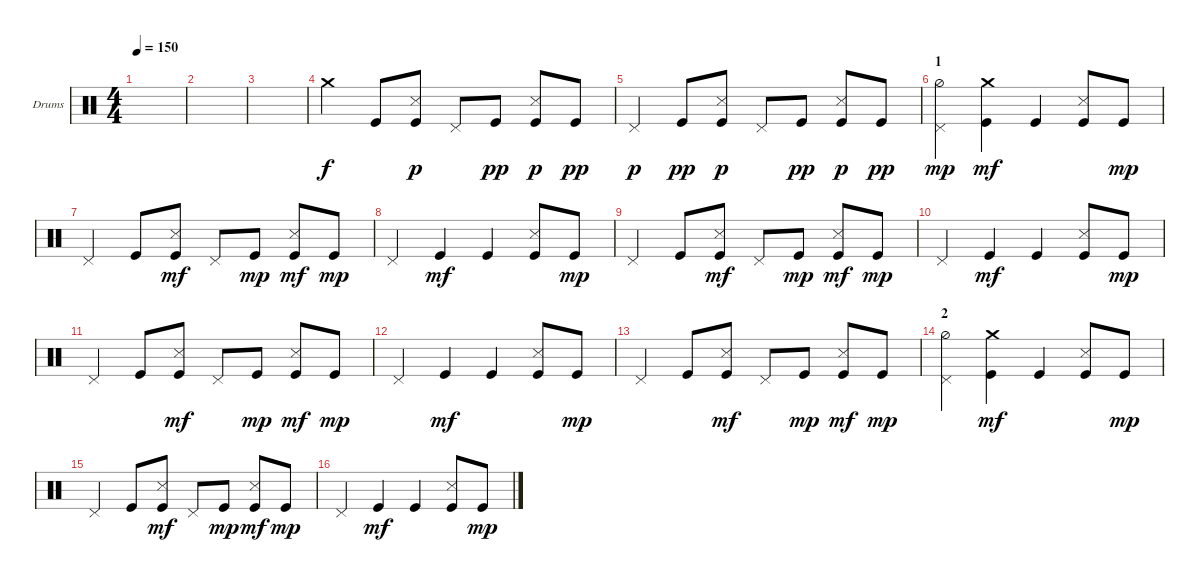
\defaultSystemsLayout 4
\bracketExtendMode groupsimilarinstruments
\firstSystemTrackNameOrientation horizontal
\otherSystemsTrackNameOrientation horizontal
\track ("Е. Кулаков" "Drums") {instrument percussion}
\staff {score}
\articulation defaults
\ts (4 4)
\tempo 150
\clef neutral
\ks c
|
|
|
"Crash medium (hit)".4 "Kick (hit)".8 ("Kick (hit)" "Snare (side stick) 3").8{dy p} "Pedal Hi-Hat (hit)".8 "Kick (hit)".8{dy pp} ("Kick (hit)" "Snare (side stick) 3").8{dy p} "Kick (hit)".8{dy pp} |
"Pedal Hi-Hat (hit)".4{dy p} "Kick (hit)".8{dy pp} ("Kick (hit)" "Snare (side stick) 3").8{dy p} "Pedal Hi-Hat (hit)".8 "Kick (hit)".8{dy pp} ("Kick (hit)" "Snare (side stick) 3").8{dy p} "Kick (hit)".8{dy pp} |
\section ("" "1")
("Pedal Hi-Hat (hit)" "Hi-Hat (half)").4{dy mp} ("Kick (hit)" "Crash medium (hit)").4{dy mf} "Kick (hit)".4 ("Kick (hit)" "Snare (side stick) 3").8 "Kick (hit)".8{dy mp} |
"Pedal Hi-Hat (hit)".4 "Kick (hit)".8 ("Kick (hit)" "Snare (side stick) 3").8{dy mf} "Pedal Hi-Hat (hit)".8 "Kick (hit)".8{dy mp} ("Kick (hit)" "Snare (side stick) 3").8{dy mf} "Kick (hit)".8{dy mp} |
"Pedal Hi-Hat (hit)".4 "Kick (hit)".4{dy mf} "Kick (hit)".4 ("Kick (hit)" "Snare (side stick) 3").8 "Kick (hit)".8{dy mp} |
"Pedal Hi-Hat (hit)".4 "Kick (hit)".8 ("Kick (hit)" "Snare (side stick) 3").8{dy mf} "Pedal Hi-Hat (hit)".8 "Kick (hit)".8{dy mp} ("Kick (hit)" "Snare (side stick) 3").8{dy mf} "Kick (hit)".8{dy mp} |
"Pedal Hi-Hat (hit)".4 "Kick (hit)".4{dy mf} "Kick (hit)".4 ("Kick (hit)" "Snare (side stick) 3").8 "Kick (hit)".8{dy mp} |
"Pedal Hi-Hat (hit)".4 "Kick (hit)".8 ("Kick (hit)" "Snare (side stick) 3").8{dy mf} "Pedal Hi-Hat (hit)".8 "Kick (hit)".8{dy mp} ("Kick (hit)" "Snare (side stick) 3").8{dy mf} "Kick (hit)".8{dy mp} |
"Pedal Hi-Hat (hit)".4 "Kick (hit)".4{dy mf} "Kick (hit)".4 ("Kick (hit)" "Snare (side stick) 3").8 "Kick (hit)".8{dy mp} |
"Pedal Hi-Hat (hit)".4 "Kick (hit)".8 ("Kick (hit)" "Snare (side stick) 3").8{dy mf} "Pedal Hi-Hat (hit)".8 "Kick (hit)".8{dy mp} ("Kick (hit)" "Snare (side stick) 3").8{dy mf} "Kick (hit)".8{dy mp} |
\section ("" "2")
("Pedal Hi-Hat (hit)" "Hi-Hat (half)").4 ("Kick (hit)" "Crash medium (hit)").4{dy mf} "Kick (hit)".4 ("Kick (hit)" "Snare (side stick) 3").8 "Kick (hit)".8{dy mp} |
"Pedal Hi-Hat (hit)".4 "Kick (hit)".8 ("Kick (hit)" "Snare (side stick) 3").8{dy mf} "Pedal Hi-Hat (hit)".8 "Kick (hit)".8{dy mp} ("Kick (hit)" "Snare (side stick) 3").8{dy mf} "Kick (hit)".8{dy mp} |
"Pedal Hi-Hat (hit)".4 "Kick (hit)".4{dy mf} "Kick (hit)".4 ("Kick (hit)" "Snare (side stick) 3").8 "Kick (hit)".8{dy mp}
